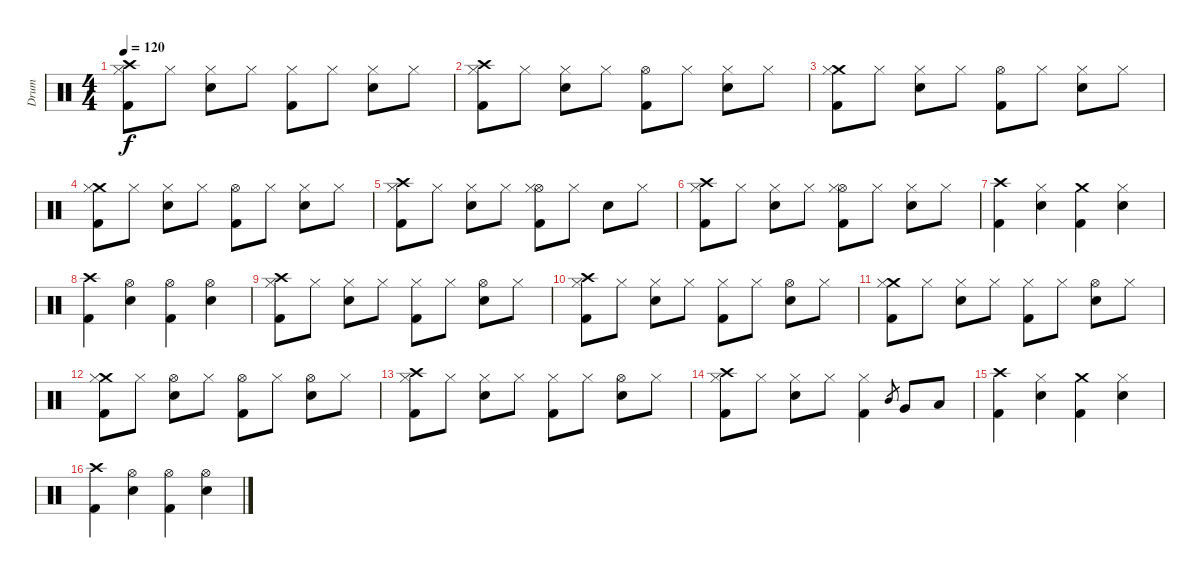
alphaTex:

\track ("Drum" "Drum") {instrument percussion}
\staff {score}
\articulation defaults
\ts (4 4)
\section ("" "")
\tempo 120
\clef neutral
\ks c
("Crash high (hit)" "Hi-Hat (closed)" "Kick (hit) 2").8{dy f} "Hi-Hat (closed)".8 ("Hi-Hat (closed)" "Snare (hit) 2").8 "Hi-Hat (closed)".8 ("Hi-Hat (closed)" "Kick (hit) 2").8 "Hi-Hat (closed)".8 ("Hi-Hat (closed)" "Snare (hit) 2").8 "Hi-Hat (closed)".8 |
("Crash high (hit)" "Hi-Hat (closed)" "Kick (hit) 2").8 "Hi-Hat (closed)".8 ("Hi-Hat (closed)" "Snare (hit) 2").8 "Hi-Hat (closed)".8 ("Hi-Hat (open)" "Kick (hit) 2").8 "Hi-Hat (closed)".8 ("Hi-Hat (closed)" "Snare (hit) 2").8 "Hi-Hat (closed)".8 |
("Crash medium (hit)" "Hi-Hat (closed)" "Kick (hit) 2").8 "Hi-Hat (closed)".8 ("Hi-Hat (closed)" "Snare (hit) 2").8 "Hi-Hat (closed)".8 ("Hi-Hat (open)" "Kick (hit) 2").8 "Hi-Hat (closed)".8 ("Hi-Hat (closed)" "Snare (hit) 2").8 "Hi-Hat (closed)".8 |
("Crash medium (hit)" "Hi-Hat (closed)" "Kick (hit) 2").8 "Hi-Hat (closed)".8 ("Hi-Hat (closed)" "Snare (hit) 2").8 "Hi-Hat (closed)".8 ("Hi-Hat (open)" "Kick (hit) 2").8 "Hi-Hat (closed)".8 ("Hi-Hat (closed)" "Snare (hit) 2").8 "Hi-Hat (closed)".8 |
("Crash high (hit)" "Hi-Hat (closed)" "Kick (hit) 2").8 "Hi-Hat (closed)".8 ("Hi-Hat (closed)" "Snare (hit) 2").8 "Hi-Hat (closed)".8 ("Hi-Hat (open)" "Hi-Hat (closed)" "Kick (hit) 2").8 "Hi-Hat (closed)".8 "Snare (hit) 2".8 "Hi-Hat (closed)".8 |
("Crash high (hit)" "Hi-Hat (closed)" "Kick (hit) 2").8 "Hi-Hat (closed)".8 ("Hi-Hat (closed)" "Snare (hit) 2").8 "Hi-Hat (closed)".8 ("Hi-Hat (open)" "Hi-Hat (closed)" "Kick (hit) 2").8 "Hi-Hat (closed)".8 ("Hi-Hat (closed)" "Snare (hit) 2").8 "Hi-Hat (closed)".8 |
("Crash high (hit)" "Kick (hit) 2").4 ("Hi-Hat (closed)" "Snare (hit) 2").4 ("Crash medium (hit)" "Kick (hit) 2").4 ("Hi-Hat (closed)" "Snare (hit) 2").4 |
("Crash high (hit)" "Kick (hit) 2").4 ("Hi-Hat (open)" "Snare (hit) 2").4 ("Hi-Hat (open)" "Kick (hit) 2").4 ("Hi-Hat (open)" "Snare (hit) 2").4 |
("Crash high (hit)" "Hi-Hat (closed)" "Kick (hit) 2").8 "Hi-Hat (closed)".8 ("Hi-Hat (closed)" "Snare (hit) 2").8 "Hi-Hat (closed)".8 ("Hi-Hat (closed)" "Kick (hit) 2").8 "Hi-Hat (closed)".8 ("Hi-Hat (open)" "Snare (hit) 2").8 "Hi-Hat (closed)".8 |
("Crash high (hit)" "Hi-Hat (closed)" "Kick (hit) 2").8 "Hi-Hat (closed)".8 ("Hi-Hat (closed)" "Snare (hit) 2").8 "Hi-Hat (closed)".8 ("Hi-Hat (closed)" "Kick (hit) 2").8 "Hi-Hat (closed)".8 ("Hi-Hat (open)" "Snare (hit) 2").8 "Hi-Hat (closed)".8 |
("Crash medium (hit)" "Hi-Hat (closed)" "Kick (hit) 2").8 "Hi-Hat (closed)".8 ("Hi-Hat (closed)" "Snare (hit) 2").8 "Hi-Hat (closed)".8 ("Hi-Hat (closed)" "Kick (hit) 2").8 "Hi-Hat (closed)".8 ("Hi-Hat (open)" "Snare (hit) 2").8 "Hi-Hat (closed)".8 |
("Crash medium (hit)" "Hi-Hat (closed)" "Kick (hit) 2").8 "Hi-Hat (closed)".8 ("Hi-Hat (open)" "Snare (hit) 2").8 "Hi-Hat (closed)".8 ("Hi-Hat (open)" "Kick (hit) 2").8 "Hi-Hat (closed)".8 ("Hi-Hat (open)" "Snare (hit) 2").8 "Hi-Hat (closed)".8 |
("Crash high (hit)" "Hi-Hat (closed)" "Kick (hit) 2").8 "Hi-Hat (closed)".8 ("Hi-Hat (closed)" "Snare (hit) 2").8 "Hi-Hat (closed)".8 ("Hi-Hat (closed)" "Kick (hit) 2").8 "Hi-Hat (closed)".8 ("Hi-Hat (open)" "Snare (hit) 2").8 "Hi-Hat (closed)".8 |
("Crash high (hit)" "Hi-Hat (closed)" "Kick (hit) 2").8 "Hi-Hat (closed)".8 ("Hi-Hat (closed)" "Snare (hit) 2").8 "Hi-Hat (closed)".8 ("Hi-Hat (closed)" "Kick (hit) 2").4 "Mid Tom (hit)".8{gr} "Very Low Tom (hit)".8 "Low Floor Tom (hit)".8 |
("Crash high (hit)" "Kick (hit) 2").4 ("Hi-Hat (closed)" "Snare (hit) 2").4 ("Crash medium (hit)" "Kick (hit) 2").4 ("Hi-Hat (closed)" "Snare (hit) 2").4 |
("Crash high (hit)" "Kick (hit) 2").4 ("Hi-Hat (open)" "Snare (hit) 2").4 ("Hi-Hat (open)" "Kick (hit) 2").4 ("Hi-Hat (open)" "Snare (hit) 2").4
